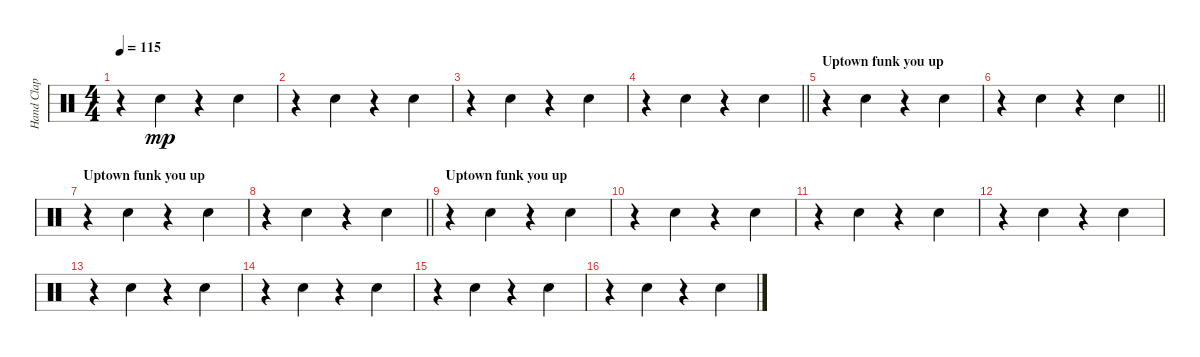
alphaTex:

\track ("Hand Clap" "Hand Clap") {instrument percussion}
\staff {score}
\articulation defaults
\ts (4 4)
\tempo 115
\clef neutral
\ks c
r.4{dy mp} "Hand Clap (hit)".4 r.4 "Hand Clap (hit)".4 |
r.4 "Hand Clap (hit)".4 r.4 "Hand Clap (hit)".4 |
r.4 "Hand Clap (hit)".4 r.4 "Hand Clap (hit)".4 |
\barLineRight lightlight
r.4 "Hand Clap (hit)".4 r.4 "Hand Clap (hit)".4 |
\section ("" "Uptown funk you up")
r.4 "Hand Clap (hit)".4 r.4 "Hand Clap (hit)".4 |
\barLineRight lightlight
r.4 "Hand Clap (hit)".4 r.4 "Hand Clap (hit)".4 |
\section ("" "Uptown funk you up")
r.4 "Hand Clap (hit)".4 r.4 "Hand Clap (hit)".4 |
\barLineRight lightlight
r.4 "Hand Clap (hit)".4 r.4 "Hand Clap (hit)".4 |
\section ("" "Uptown funk you up")
r.4 "Hand Clap (hit)".4 r.4 "Hand Clap (hit)".4 |
r.4 "Hand Clap (hit)".4 r.4 "Hand Clap (hit)".4 |
r.4 "Hand Clap (hit)".4 r.4 "Hand Clap (hit)".4 |
r.4 "Hand Clap (hit)".4 r.4 "Hand Clap (hit)".4 |
r.4 "Hand Clap (hit)".4 r.4 "Hand Clap (hit)".4 |
r.4 "Hand Clap (hit)".4 r.4 "Hand Clap (hit)".4 |
r.4 "Hand Clap (hit)".4 r.4 "Hand Clap (hit)".4 |
r.4 "Hand Clap (hit)".4 r.4 "Hand Clap (hit)".4
